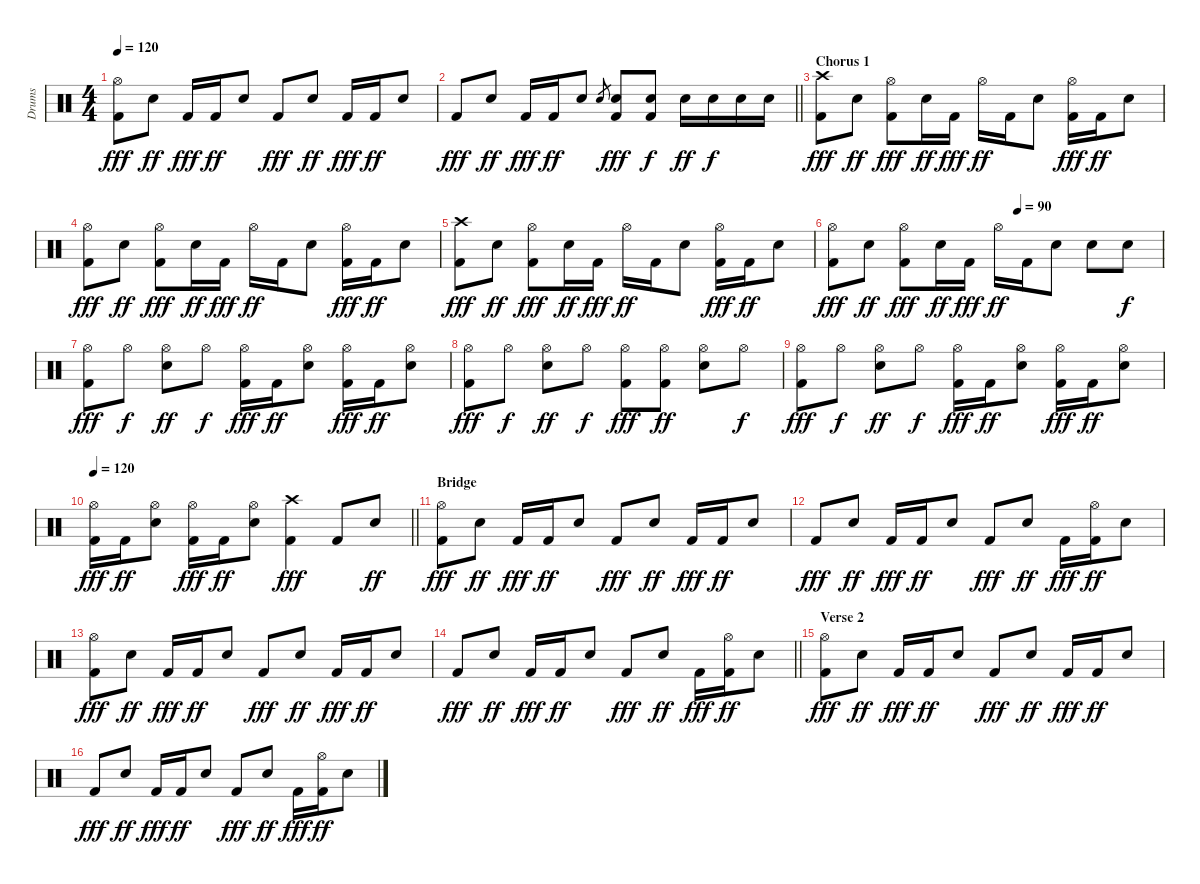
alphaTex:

\track ("Drums" "Drums") {instrument percussion}
\staff {score}
\articulation defaults
\ts (4 4)
\tempo 120
\clef neutral
\ks c
("Hi-Hat (open)" "Kick (hit) 2").8{dy fff} "Snare (hit) 2".8{dy ff} "Kick (hit) 2".16{dy fff} "Kick (hit) 2".16{dy ff} "Snare (hit) 2".8 "Kick (hit) 2".8{dy fff} "Snare (hit) 2".8{dy ff} "Kick (hit) 2".16{dy fff} "Kick (hit) 2".16{dy ff} "Snare (hit) 2".8 |
\barLineRight lightlight "Kick (hit) 2".8{dy fff} "Snare (hit) 2".8{dy ff} "Kick (hit) 2".16{dy fff} "Kick (hit) 2".16{dy ff} "Snare (hit) 2".8 "Snare (hit) 2".8{gr}
("Snare (hit) 2" "Kick (hit) 2").8{dy fff} ("Snare (hit) 2" "Kick (hit) 2").8{dy f} "Snare (hit) 2".16{dy ff} "Snare (hit) 2".16{dy f} "Snare (hit) 2".16 "Snare (hit) 2".16 |
\section ("" "Chorus 1")
("Crash high (hit)" "Kick (hit) 2").8{dy fff} "Snare (hit) 2".8{dy ff} ("Hi-Hat (open)" "Kick (hit) 2").8{dy fff} "Snare (hit) 2".16{dy ff} "Kick (hit) 2".16{dy fff} "Hi-Hat (open)".16{dy ff} "Kick (hit) 2".16 "Snare (hit) 2".8 ("Hi-Hat (open)" "Kick (hit) 2").16{dy fff} "Kick (hit) 2".16{dy ff} "Snare (hit) 2".8 |
("Hi-Hat (open)" "Kick (hit) 2").8{dy fff} "Snare (hit) 2".8{dy ff} ("Hi-Hat (open)" "Kick (hit) 2").8{dy fff} "Snare (hit) 2".16{dy ff} "Kick (hit) 2".16{dy fff} "Hi-Hat (open)".16{dy ff} "Kick (hit) 2".16 "Snare (hit) 2".8 ("Hi-Hat (open)" "Kick (hit) 2").16{dy fff} "Kick (hit) 2".16{dy ff} "Snare (hit) 2".8 |
("Crash high (hit)" "Kick (hit) 2").8{dy fff} "Snare (hit) 2".8{dy ff} ("Hi-Hat (open)" "Kick (hit) 2").8{dy fff} "Snare (hit) 2".16{dy ff} "Kick (hit) 2".16{dy fff} "Hi-Hat (open)".16{dy ff} "Kick (hit) 2".16 "Snare (hit) 2".8 ("Hi-Hat (open)" "Kick (hit) 2").16{dy fff} "Kick (hit) 2".16{dy ff} "Snare (hit) 2".8 |
\tempo (90 0.5625)
("Hi-Hat (open)" "Kick (hit) 2").8{dy fff} "Snare (hit) 2".8{dy ff} ("Hi-Hat (open)" "Kick (hit) 2").8{dy fff} "Snare (hit) 2".16{dy ff} "Kick (hit) 2".16{dy fff} "Hi-Hat (open)".16{dy ff} "Kick (hit) 2".16 "Snare (hit) 2".8 "Snare (hit) 2".8 "Snare (hit) 2".8{dy f} |
("Hi-Hat (open)" "Kick (hit) 2").8{dy fff} "Hi-Hat (open)".8{dy f} ("Hi-Hat (open)" "Snare (hit) 2").8{dy ff} "Hi-Hat (open)".8{dy f} ("Hi-Hat (open)" "Kick (hit) 2").16{dy fff} "Kick (hit) 2".16{dy ff} ("Hi-Hat (open)" "Snare (hit) 2").8 ("Hi-Hat (open)" "Kick (hit) 2").16{dy fff} "Kick (hit) 2".16{dy ff} ("Hi-Hat (open)" "Snare (hit) 2").8 |
("Hi-Hat (open)" "Kick (hit) 2").8{dy fff} "Hi-Hat (open)".8{dy f} ("Hi-Hat (open)" "Snare (hit) 2").8{dy ff} "Hi-Hat (open)".8{dy f} ("Hi-Hat (open)" "Kick (hit) 2").8{dy fff} ("Hi-Hat (open)" "Kick (hit) 2").8{dy ff} ("Hi-Hat (open)" "Snare (hit) 2").8 "Hi-Hat (open)".8{dy f} |
("Hi-Hat (open)" "Kick (hit) 2").8{dy fff} "Hi-Hat (open)".8{dy f} ("Hi-Hat (open)" "Snare (hit) 2").8{dy ff} "Hi-Hat (open)".8{dy f} ("Hi-Hat (open)" "Kick (hit) 2").16{dy fff} "Kick (hit) 2".16{dy ff} ("Hi-Hat (open)" "Snare (hit) 2").8 ("Hi-Hat (open)" "Kick (hit) 2").16{dy fff} "Kick (hit) 2".16{dy ff} ("Hi-Hat (open)" "Snare (hit) 2").8 |
\tempo 120
\barLineRight lightlight
("Hi-Hat (open)" "Kick (hit) 2").16{dy fff} "Kick (hit) 2".16{dy ff} ("Hi-Hat (open)" "Snare (hit) 2").8 ("Hi-Hat (open)" "Kick (hit) 2").16{dy fff} "Kick (hit) 2".16{dy ff} ("Hi-Hat (open)" "Snare (hit) 2").8 ("Crash high (hit)" "Kick (hit) 2").4{dy fff} "Kick (hit) 2".8 "Snare (hit) 2".8{dy ff} |
\section ("" "Bridge")
("Hi-Hat (open)" "Kick (hit) 2").8{dy fff} "Snare (hit) 2".8{dy ff} "Kick (hit) 2".16{dy fff} "Kick (hit) 2".16{dy ff} "Snare (hit) 2".8 "Kick (hit) 2".8{dy fff} "Snare (hit) 2".8{dy ff} "Kick (hit) 2".16{dy fff} "Kick (hit) 2".16{dy ff} "Snare (hit) 2".8 |
"Kick (hit) 2".8{dy fff} "Snare (hit) 2".8{dy ff} "Kick (hit) 2".16{dy fff} "Kick (hit) 2".16{dy ff} "Snare (hit) 2".8 "Kick (hit) 2".8{dy fff} "Snare (hit) 2".8{dy ff} "Kick (hit) 2".16{dy fff} ("Hi-Hat (open)" "Kick (hit) 2").16{dy ff} "Snare (hit) 2".8 |
("Hi-Hat (open)" "Kick (hit) 2").8{dy fff} "Snare (hit) 2".8{dy ff} "Kick (hit) 2".16{dy fff} "Kick (hit) 2".16{dy ff} "Snare (hit) 2".8 "Kick (hit) 2".8{dy fff} "Snare (hit) 2".8{dy ff} "Kick (hit) 2".16{dy fff} "Kick (hit) 2".16{dy ff} "Snare (hit) 2".8 |
\barLineRight lightlight "Kick (hit) 2".8{dy fff} "Snare (hit) 2".8{dy ff} "Kick (hit) 2".16{dy fff} "Kick (hit) 2".16{dy ff} "Snare (hit) 2".8 "Kick (hit) 2".8{dy fff} "Snare (hit) 2".8{dy ff} "Kick (hit) 2".16{dy fff}
("Hi-Hat (open)" "Kick (hit) 2").16{dy ff} "Snare (hit) 2".8 |
\section ("" "Verse 2")
("Hi-Hat (open)" "Kick (hit) 2").8{dy fff} "Snare (hit) 2".8{dy ff} "Kick (hit) 2".16{dy fff} "Kick (hit) 2".16{dy ff} "Snare (hit) 2".8 "Kick (hit) 2".8{dy fff} "Snare (hit) 2".8{dy ff} "Kick (hit) 2".16{dy fff} "Kick (hit) 2".16{dy ff} "Snare (hit) 2".8 |
"Kick (hit) 2".8{dy fff} "Snare (hit) 2".8{dy ff} "Kick (hit) 2".16{dy fff} "Kick (hit) 2".16{dy ff} "Snare (hit) 2".8 "Kick (hit) 2".8{dy fff} "Snare (hit) 2".8{dy ff} "Kick (hit) 2".16{dy fff} ("Hi-Hat (open)" "Kick (hit) 2").16{dy ff} "Snare (hit) 2".8
